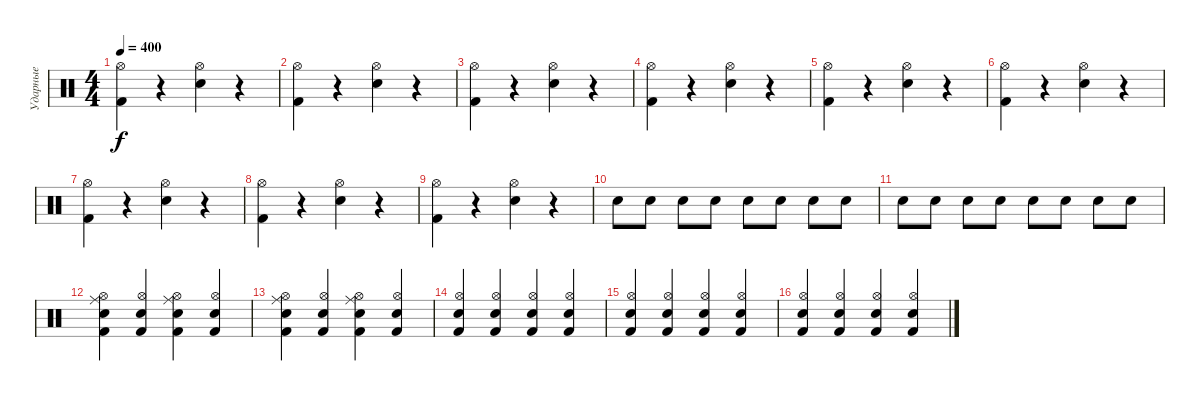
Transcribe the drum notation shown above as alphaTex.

\track ("Ударные" "Ударные") {instrument percussion}
\staff {score}
\articulation defaults
\ts (4 4)
\tempo 400
\clef neutral
\ks c
("Kick (hit) 2" "Hi-Hat (open)").4{dy f} r.4 ("Electric Snare (hit)" "Hi-Hat (open)").4 r.4 |
("Kick (hit) 2" "Hi-Hat (open)").4 r.4 ("Electric Snare (hit)" "Hi-Hat (open)").4 r.4 |
("Kick (hit) 2" "Hi-Hat (open)").4 r.4 ("Electric Snare (hit)" "Hi-Hat (open)").4 r.4 |
("Kick (hit) 2" "Hi-Hat (open)").4 r.4 ("Electric Snare (hit)" "Hi-Hat (open)").4 r.4 |
("Kick (hit) 2" "Hi-Hat (open)").4 r.4 ("Electric Snare (hit)" "Hi-Hat (open)").4 r.4 |
("Kick (hit) 2" "Hi-Hat (open)").4 r.4 ("Electric Snare (hit)" "Hi-Hat (open)").4 r.4 |
("Kick (hit) 2" "Hi-Hat (open)").4 r.4 ("Electric Snare (hit)" "Hi-Hat (open)").4 r.4 |
("Kick (hit) 2" "Hi-Hat (open)").4 r.4 ("Electric Snare (hit)" "Hi-Hat (open)").4 r.4 |
("Kick (hit) 2" "Hi-Hat (open)").4 r.4 ("Electric Snare (hit)" "Hi-Hat (open)").4 r.4 |
"Electric Snare (hit)".8 "Electric Snare (hit)".8 "Electric Snare (hit)".8 "Electric Snare (hit)".8 "Electric Snare (hit)".8 "Electric Snare (hit)".8 "Electric Snare (hit)".8 "Electric Snare (hit)".8 |
"Snare (hit) 2".8 "Snare (hit) 2".8 "Snare (hit) 2".8 "Snare (hit) 2".8 "Electric Snare (hit)".8 "Electric Snare (hit)".8 "Electric Snare (hit)".8 "Electric Snare (hit)".8 |
("Electric Snare (hit)" "Hi-Hat (open)" "Ride (middle)" "Kick (hit) 2").4 ("Hi-Hat (open)" "Kick (hit) 2" "Electric Snare (hit)").4 ("Electric Snare (hit)" "Kick (hit) 2" "Hi-Hat (open)" "Ride (middle)").4 ("Hi-Hat (open)" "Kick (hit) 2" "Electric Snare (hit)").4 |
("Electric Snare (hit)" "Hi-Hat (open)" "Ride (middle)" "Kick (hit) 2").4 ("Hi-Hat (open)" "Kick (hit) 2" "Electric Snare (hit)").4 ("Electric Snare (hit)" "Kick (hit) 2" "Hi-Hat (open)" "Ride (middle)").4 ("Hi-Hat (open)" "Kick (hit) 2" "Electric Snare (hit)").4 |
("Electric Snare (hit)" "Hi-Hat (open)" "Kick (hit) 2").4 ("Hi-Hat (open)" "Kick (hit) 2" "Electric Snare (hit)").4 ("Electric Snare (hit)" "Kick (hit) 2" "Hi-Hat (open)").4 ("Hi-Hat (open)" "Kick (hit) 2" "Electric Snare (hit)").4 |
("Electric Snare (hit)" "Hi-Hat (open)" "Kick (hit) 2").4 ("Hi-Hat (open)" "Kick (hit) 2" "Electric Snare (hit)").4 ("Electric Snare (hit)" "Kick (hit) 2" "Hi-Hat (open)").4 ("Hi-Hat (open)" "Kick (hit) 2" "Electric Snare (hit)").4 |
("Electric Snare (hit)" "Hi-Hat (open)" "Kick (hit) 2").4 ("Hi-Hat (open)" "Kick (hit) 2" "Electric Snare (hit)").4 ("Electric Snare (hit)" "Kick (hit) 2" "Hi-Hat (open)").4 ("Hi-Hat (open)" "Kick (hit) 2" "Electric Snare (hit)").4
